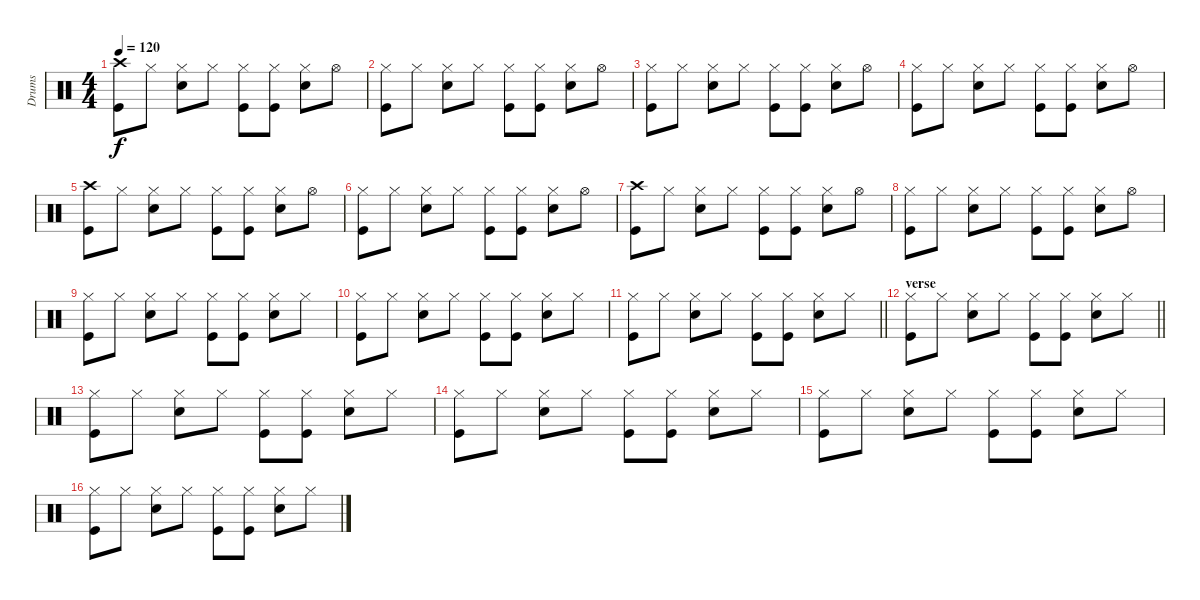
\track ("Drums" "Drums") {instrument percussion}
\staff {score}
\articulation defaults
\ts (4 4)
\tempo 120
\clef neutral
\ks c
("Crash high (hit)" "Kick (hit)").8{dy f} "Hi-Hat (closed)".8 ("Hi-Hat (closed)" "Electric Snare (hit)").8 "Hi-Hat (closed)".8 ("Hi-Hat (closed)" "Kick (hit)").8 ("Hi-Hat (closed)" "Kick (hit)").8 ("Hi-Hat (closed)" "Electric Snare (hit)").8 "Hi-Hat (open)".8 |
("Hi-Hat (closed)" "Kick (hit)").8 "Hi-Hat (closed)".8 ("Hi-Hat (closed)" "Electric Snare (hit)").8 "Hi-Hat (closed)".8 ("Hi-Hat (closed)" "Kick (hit)").8 ("Hi-Hat (closed)" "Kick (hit)").8 ("Hi-Hat (closed)" "Electric Snare (hit)").8 "Hi-Hat (open)".8 |
("Hi-Hat (closed)" "Kick (hit)").8 "Hi-Hat (closed)".8 ("Hi-Hat (closed)" "Electric Snare (hit)").8 "Hi-Hat (closed)".8 ("Hi-Hat (closed)" "Kick (hit)").8 ("Hi-Hat (closed)" "Kick (hit)").8 ("Hi-Hat (closed)" "Electric Snare (hit)").8 "Hi-Hat (open)".8 |
("Hi-Hat (closed)" "Kick (hit)").8 "Hi-Hat (closed)".8 ("Hi-Hat (closed)" "Electric Snare (hit)").8 "Hi-Hat (closed)".8 ("Hi-Hat (closed)" "Kick (hit)").8 ("Hi-Hat (closed)" "Kick (hit)").8 ("Hi-Hat (closed)" "Electric Snare (hit)").8 "Hi-Hat (open)".8 |
("Crash high (hit)" "Kick (hit)").8 "Hi-Hat (closed)".8 ("Hi-Hat (closed)" "Electric Snare (hit)").8 "Hi-Hat (closed)".8 ("Hi-Hat (closed)" "Kick (hit)").8 ("Hi-Hat (closed)" "Kick (hit)").8 ("Hi-Hat (closed)" "Electric Snare (hit)").8 "Hi-Hat (open)".8 |
("Hi-Hat (closed)" "Kick (hit)").8 "Hi-Hat (closed)".8 ("Hi-Hat (closed)" "Electric Snare (hit)").8 "Hi-Hat (closed)".8 ("Hi-Hat (closed)" "Kick (hit)").8 ("Hi-Hat (closed)" "Kick (hit)").8 ("Hi-Hat (closed)" "Electric Snare (hit)").8 "Hi-Hat (open)".8 |
("Crash high (hit)" "Kick (hit)").8 "Hi-Hat (closed)".8 ("Hi-Hat (closed)" "Electric Snare (hit)").8 "Hi-Hat (closed)".8 ("Hi-Hat (closed)" "Kick (hit)").8 ("Hi-Hat (closed)" "Kick (hit)").8 ("Hi-Hat (closed)" "Electric Snare (hit)").8 "Hi-Hat (open)".8 |
("Hi-Hat (closed)" "Kick (hit)").8 "Hi-Hat (closed)".8 ("Hi-Hat (closed)" "Electric Snare (hit)").8 "Hi-Hat (closed)".8 ("Hi-Hat (closed)" "Kick (hit)").8 ("Hi-Hat (closed)" "Kick (hit)").8 ("Hi-Hat (closed)" "Electric Snare (hit)").8 "Hi-Hat (open)".8 |
("Hi-Hat (closed)" "Kick (hit)").8 "Hi-Hat (closed)".8 ("Hi-Hat (closed)" "Electric Snare (hit)").8 "Hi-Hat (closed)".8 ("Hi-Hat (closed)" "Kick (hit)").8 ("Hi-Hat (closed)" "Kick (hit)").8 ("Hi-Hat (closed)" "Electric Snare (hit)").8 "Hi-Hat (closed)".8 |
("Hi-Hat (closed)" "Kick (hit)").8 "Hi-Hat (closed)".8 ("Hi-Hat (closed)" "Electric Snare (hit)").8 "Hi-Hat (closed)".8 ("Hi-Hat (closed)" "Kick (hit)").8 ("Hi-Hat (closed)" "Kick (hit)").8 ("Hi-Hat (closed)" "Electric Snare (hit)").8 "Hi-Hat (closed)".8 |
\barLineRight lightlight
("Hi-Hat (closed)" "Kick (hit)").8 "Hi-Hat (closed)".8 ("Hi-Hat (closed)" "Electric Snare (hit)").8 "Hi-Hat (closed)".8 ("Hi-Hat (closed)" "Kick (hit)").8 ("Hi-Hat (closed)" "Kick (hit)").8 ("Hi-Hat (closed)" "Electric Snare (hit)").8 "Hi-Hat (closed)".8 |
\section ("" "verse")
\barLineRight lightlight
("Hi-Hat (closed)" "Kick (hit)").8 "Hi-Hat (closed)".8 ("Hi-Hat (closed)" "Electric Snare (hit)").8 "Hi-Hat (closed)".8 ("Hi-Hat (closed)" "Kick (hit)").8 ("Hi-Hat (closed)" "Kick (hit)").8 ("Hi-Hat (closed)" "Electric Snare (hit)").8 "Hi-Hat (closed)".8 |
("Hi-Hat (closed)" "Kick (hit)").8 "Hi-Hat (closed)".8 ("Hi-Hat (closed)" "Electric Snare (hit)").8 "Hi-Hat (closed)".8 ("Hi-Hat (closed)" "Kick (hit)").8 ("Hi-Hat (closed)" "Kick (hit)").8 ("Hi-Hat (closed)" "Electric Snare (hit)").8 "Hi-Hat (closed)".8 |
("Hi-Hat (closed)" "Kick (hit)").8 "Hi-Hat (closed)".8 ("Hi-Hat (closed)" "Electric Snare (hit)").8 "Hi-Hat (closed)".8 ("Hi-Hat (closed)" "Kick (hit)").8 ("Hi-Hat (closed)" "Kick (hit)").8 ("Hi-Hat (closed)" "Electric Snare (hit)").8 "Hi-Hat (closed)".8 |
("Hi-Hat (closed)" "Kick (hit)").8 "Hi-Hat (closed)".8 ("Hi-Hat (closed)" "Electric Snare (hit)").8 "Hi-Hat (closed)".8 ("Hi-Hat (closed)" "Kick (hit)").8 ("Hi-Hat (closed)" "Kick (hit)").8 ("Hi-Hat (closed)" "Electric Snare (hit)").8 "Hi-Hat (closed)".8 |
("Hi-Hat (closed)" "Kick (hit)").8 "Hi-Hat (closed)".8 ("Hi-Hat (closed)" "Electric Snare (hit)").8 "Hi-Hat (closed)".8 ("Hi-Hat (closed)" "Kick (hit)").8 ("Hi-Hat (closed)" "Kick (hit)").8 ("Hi-Hat (closed)" "Electric Snare (hit)").8 "Hi-Hat (closed)".8
